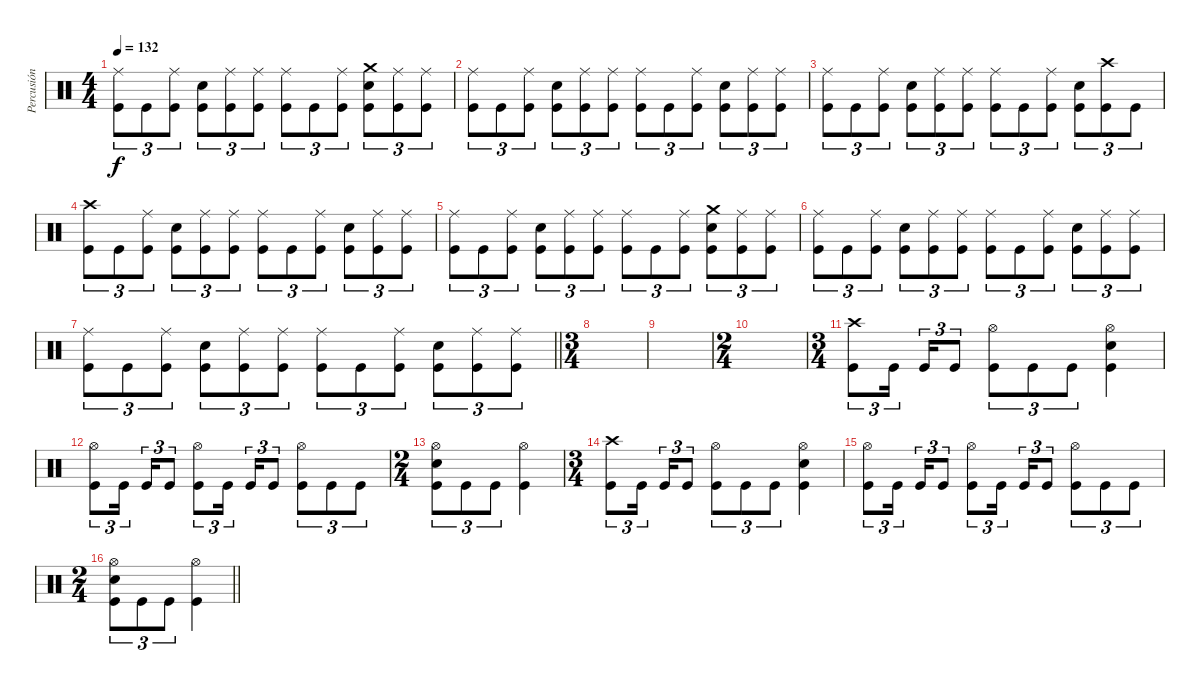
\track ("Percusión" "Percusión") {instrument percussion}
\staff
\articulation defaults
\ts (4 4)
\tempo 132
\clef neutral
\ks c
("Kick (hit)" "Ride (middle)").8{tu (3 2) dy f} "Kick (hit)".8{tu (3 2)} ("Kick (hit)" "Ride (middle)").8{tu (3 2)} ("Kick (hit)" "Electric Snare (hit)").8{tu (3 2)} ("Kick (hit)" "Ride (middle)").8{tu (3 2)} ("Kick (hit)" "Ride (middle)").8{tu (3 2)} ("Kick (hit)" "Ride (middle)").8{tu (3 2)} "Kick (hit)".8{tu (3 2)} ("Kick (hit)" "Ride (middle)").8{tu (3 2)} ("Kick (hit)" "Electric Snare (hit)" "Crash medium (hit)").8{tu (3 2)} ("Kick (hit)" "Ride (middle)").8{tu (3 2)} ("Kick (hit)" "Ride (middle)").8{tu (3 2)} |
("Kick (hit)" "Ride (middle)").8{tu (3 2)} "Kick (hit)".8{tu (3 2)} ("Kick (hit)" "Ride (middle)").8{tu (3 2)} ("Kick (hit)" "Electric Snare (hit)").8{tu (3 2)} ("Kick (hit)" "Ride (middle)").8{tu (3 2)} ("Kick (hit)" "Ride (middle)").8{tu (3 2)} ("Kick (hit)" "Ride (middle)").8{tu (3 2)} "Kick (hit)".8{tu (3 2)} ("Kick (hit)" "Ride (middle)").8{tu (3 2)} ("Kick (hit)" "Electric Snare (hit)").8{tu (3 2)} ("Kick (hit)" "Ride (middle)").8{tu (3 2)} ("Kick (hit)" "Ride (middle)").8{tu (3 2)} |
("Kick (hit)" "Ride (middle)").8{tu (3 2)} "Kick (hit)".8{tu (3 2)} ("Kick (hit)" "Ride (middle)").8{tu (3 2)} ("Kick (hit)" "Electric Snare (hit)").8{tu (3 2)} ("Kick (hit)" "Ride (middle)").8{tu (3 2)} ("Kick (hit)" "Ride (middle)").8{tu (3 2)} ("Kick (hit)" "Ride (middle)").8{tu (3 2)} "Kick (hit)".8{tu (3 2)} ("Kick (hit)" "Ride (middle)").8{tu (3 2)} ("Kick (hit)" "Electric Snare (hit)").8{tu (3 2)} ("Kick (hit)" "Crash high (hit)").8{tu (3 2)} "Kick (hit)".8{tu (3 2)} |
("Kick (hit)" "Crash high (hit)").8{tu (3 2)} "Kick (hit)".8{tu (3 2)} ("Kick (hit)" "Ride (middle)").8{tu (3 2)} ("Kick (hit)" "Electric Snare (hit)").8{tu (3 2)} ("Kick (hit)" "Ride (middle)").8{tu (3 2)} ("Kick (hit)" "Ride (middle)").8{tu (3 2)} ("Kick (hit)" "Ride (middle)").8{tu (3 2)} "Kick (hit)".8{tu (3 2)} ("Kick (hit)" "Ride (middle)").8{tu (3 2)} ("Kick (hit)" "Electric Snare (hit)").8{tu (3 2)} ("Kick (hit)" "Ride (middle)").8{tu (3 2)} ("Kick (hit)" "Ride (middle)").8{tu (3 2)} |
("Kick (hit)" "Ride (middle)").8{tu (3 2)} "Kick (hit)".8{tu (3 2)} ("Kick (hit)" "Ride (middle)").8{tu (3 2)} ("Kick (hit)" "Electric Snare (hit)").8{tu (3 2)} ("Kick (hit)" "Ride (middle)").8{tu (3 2)} ("Kick (hit)" "Ride (middle)").8{tu (3 2)} ("Kick (hit)" "Ride (middle)").8{tu (3 2)} "Kick (hit)".8{tu (3 2)} ("Kick (hit)" "Ride (middle)").8{tu (3 2)} ("Kick (hit)" "Electric Snare (hit)" "Crash medium (hit)").8{tu (3 2)} ("Kick (hit)" "Ride (middle)").8{tu (3 2)} ("Kick (hit)" "Ride (middle)").8{tu (3 2)} |
("Kick (hit)" "Ride (middle)").8{tu (3 2)} "Kick (hit)".8{tu (3 2)} ("Kick (hit)" "Ride (middle)").8{tu (3 2)} ("Kick (hit)" "Electric Snare (hit)").8{tu (3 2)} ("Kick (hit)" "Ride (middle)").8{tu (3 2)} ("Kick (hit)" "Ride (middle)").8{tu (3 2)} ("Kick (hit)" "Ride (middle)").8{tu (3 2)} "Kick (hit)".8{tu (3 2)} ("Kick (hit)" "Ride (middle)").8{tu (3 2)} ("Kick (hit)" "Electric Snare (hit)").8{tu (3 2)} ("Kick (hit)" "Ride (middle)").8{tu (3 2)} ("Kick (hit)" "Ride (middle)").8{tu (3 2)} |
\barLineRight lightlight
("Kick (hit)" "Ride (middle)").8{tu (3 2)} "Kick (hit)".8{tu (3 2)} ("Kick (hit)" "Ride (middle)").8{tu (3 2)} ("Kick (hit)" "Electric Snare (hit)").8{tu (3 2)} ("Kick (hit)" "Ride (middle)").8{tu (3 2)} ("Kick (hit)" "Ride (middle)").8{tu (3 2)} ("Kick (hit)" "Ride (middle)").8{tu (3 2)} "Kick (hit)".8{tu (3 2)} ("Kick (hit)" "Ride (middle)").8{tu (3 2)} ("Kick (hit)" "Electric Snare (hit)").8{tu (3 2)} ("Kick (hit)" "Ride (middle)").8{tu (3 2)} ("Kick (hit)" "Ride (middle)").8{tu (3 2)} |
\ts (3 4)
|
|
\ts (2 4)
|
\ts (3 4)
("Kick (hit)" "Crash high (hit)").8{tu (3 2)} "Kick (hit)".16{tu (3 2) beam splitsecondary} "Kick (hit)".16{tu (3 2)} "Kick (hit)".8{tu (3 2)} ("Kick (hit)" "Hi-Hat (open)").8{tu (3 2)} "Kick (hit)".8{tu (3 2)} "Kick (hit)".8{tu (3 2)} ("Kick (hit)" "Electric Snare (hit)" "Hi-Hat (open)").4 |
("Kick (hit)" "Hi-Hat (open)").8{tu (3 2)} "Kick (hit)".16{tu (3 2) beam splitsecondary} "Kick (hit)".16{tu (3 2)} "Kick (hit)".8{tu (3 2)} ("Kick (hit)" "Hi-Hat (open)").8{tu (3 2)} "Kick (hit)".16{tu (3 2) beam splitsecondary} "Kick (hit)".16{tu (3 2)} "Kick (hit)".8{tu (3 2)} ("Kick (hit)" "Hi-Hat (open)").8{tu (3 2)} "Kick (hit)".8{tu (3 2)} "Kick (hit)".8{tu (3 2)} |
\ts (2 4)
("Kick (hit)" "Hi-Hat (open)" "Electric Snare (hit)").8{tu (3 2)} "Kick (hit)".8{tu (3 2)} "Kick (hit)".8{tu (3 2)} ("Kick (hit)" "Hi-Hat (open)").4 |
\ts (3 4)
("Kick (hit)" "Crash high (hit)").8{tu (3 2)} "Kick (hit)".16{tu (3 2) beam splitsecondary} "Kick (hit)".16{tu (3 2)} "Kick (hit)".8{tu (3 2)} ("Kick (hit)" "Hi-Hat (open)").8{tu (3 2)} "Kick (hit)".8{tu (3 2)} "Kick (hit)".8{tu (3 2)} ("Kick (hit)" "Electric Snare (hit)" "Hi-Hat (open)").4 |
("Kick (hit)" "Hi-Hat (open)").8{tu (3 2)} "Kick (hit)".16{tu (3 2) beam splitsecondary} "Kick (hit)".16{tu (3 2)} "Kick (hit)".8{tu (3 2)} ("Kick (hit)" "Hi-Hat (open)").8{tu (3 2)} "Kick (hit)".16{tu (3 2) beam splitsecondary} "Kick (hit)".16{tu (3 2)} "Kick (hit)".8{tu (3 2)} ("Kick (hit)" "Hi-Hat (open)").8{tu (3 2)} "Kick (hit)".8{tu (3 2)} "Kick (hit)".8{tu (3 2)} |
\ts (2 4)
\barLineRight lightlight
("Kick (hit)" "Hi-Hat (open)" "Electric Snare (hit)").8{tu (3 2)} "Kick (hit)".8{tu (3 2)} "Kick (hit)".8{tu (3 2)} ("Kick (hit)" "Hi-Hat (open)").4
